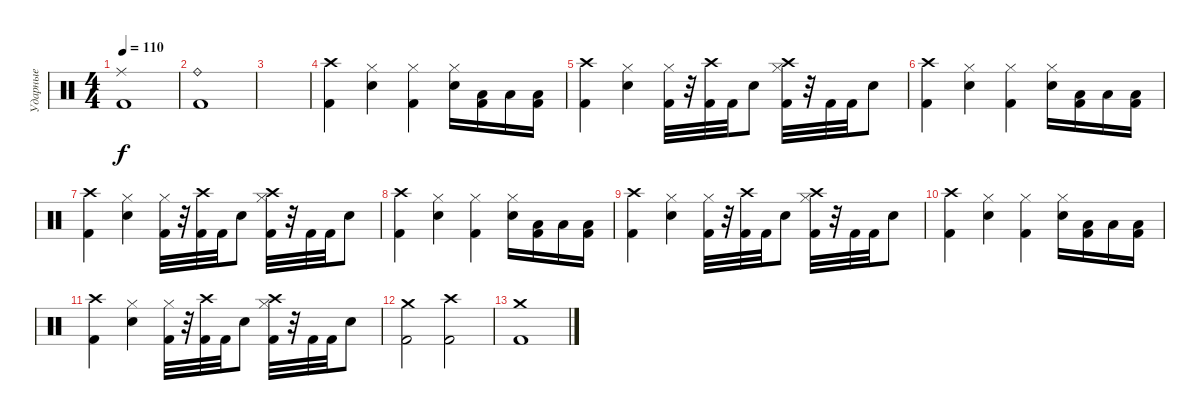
\track ("Ударные" "Ударные") {instrument percussion}
\staff {score}
\articulation defaults
\ts (4 4)
\tempo 110
\clef neutral
\ks c
("Ride (middle)" "Kick (hit) 2").1{dy f} |
("Ride (bell)" "Kick (hit) 2").1 |
|
("Crash high (hit)" "Kick (hit) 2").4 ("Hi-Hat (closed)" "Electric Snare (hit)").4 ("Kick (hit) 2" "Hi-Hat (closed)").4 ("Hi-Hat (closed)" "Electric Snare (hit)").16 ("Kick (hit) 2" "Low Tom (hit)").16 "Low Tom (hit)".16 ("Kick (hit) 2" "Low Tom (hit)").16 |
("Crash high (hit)" "Kick (hit) 2").4 ("Hi-Hat (closed)" "Electric Snare (hit)").4 ("Kick (hit) 2" "Hi-Hat (closed)").32 r.32 ("Kick (hit) 2" "Crash high (hit)").32 "Kick (hit) 2".32 "Electric Snare (hit)".8 ("Hi-Hat (closed)" "Kick (hit) 2" "Crash high (hit)").32 r.32 "Kick (hit) 2".32 "Kick (hit) 2".32 "Electric Snare (hit)".8 |
("Crash high (hit)" "Kick (hit) 2").4 ("Hi-Hat (closed)" "Electric Snare (hit)").4 ("Kick (hit) 2" "Hi-Hat (closed)").4 ("Hi-Hat (closed)" "Electric Snare (hit)").16 ("Kick (hit) 2" "Low Tom (hit)").16 "Low Tom (hit)".16 ("Kick (hit) 2" "Low Tom (hit)").16 |
("Crash high (hit)" "Kick (hit) 2").4 ("Hi-Hat (closed)" "Electric Snare (hit)").4 ("Kick (hit) 2" "Hi-Hat (closed)").32 r.32 ("Kick (hit) 2" "Crash high (hit)").32 "Kick (hit) 2".32 "Electric Snare (hit)".8 ("Hi-Hat (closed)" "Kick (hit) 2" "Crash high (hit)").32 r.32 "Kick (hit) 2".32 "Kick (hit) 2".32 "Electric Snare (hit)".8 |
("Crash high (hit)" "Kick (hit) 2").4 ("Hi-Hat (closed)" "Electric Snare (hit)").4 ("Kick (hit) 2" "Hi-Hat (closed)").4 ("Hi-Hat (closed)" "Electric Snare (hit)").16 ("Kick (hit) 2" "Low Tom (hit)").16 "Low Tom (hit)".16 ("Kick (hit) 2" "Low Tom (hit)").16 |
("Crash high (hit)" "Kick (hit) 2").4 ("Hi-Hat (closed)" "Electric Snare (hit)").4 ("Kick (hit) 2" "Hi-Hat (closed)").32 r.32 ("Kick (hit) 2" "Crash high (hit)").32 "Kick (hit) 2".32 "Electric Snare (hit)".8 ("Hi-Hat (closed)" "Kick (hit) 2" "Crash high (hit)").32 r.32 "Kick (hit) 2".32 "Kick (hit) 2".32 "Electric Snare (hit)".8 |
("Crash high (hit)" "Kick (hit) 2").4 ("Hi-Hat (closed)" "Electric Snare (hit)").4 ("Kick (hit) 2" "Hi-Hat (closed)").4 ("Hi-Hat (closed)" "Electric Snare (hit)").16 ("Kick (hit) 2" "Low Tom (hit)").16 "Low Tom (hit)".16 ("Kick (hit) 2" "Low Tom (hit)").16 |
("Crash high (hit)" "Kick (hit) 2").4 ("Hi-Hat (closed)" "Electric Snare (hit)").4 ("Kick (hit) 2" "Hi-Hat (closed)").32 r.32 ("Kick (hit) 2" "Crash high (hit)").32 "Kick (hit) 2".32 "Electric Snare (hit)".8 ("Hi-Hat (closed)" "Kick (hit) 2" "Crash high (hit)").32 r.32 "Kick (hit) 2".32 "Kick (hit) 2".32 "Electric Snare (hit)".8 |
("Kick (hit) 2" "Crash medium (hit)").2 ("Kick (hit) 2" "Crash high (hit)").2 |
("Kick (hit) 2" "Crash medium (hit)").1
